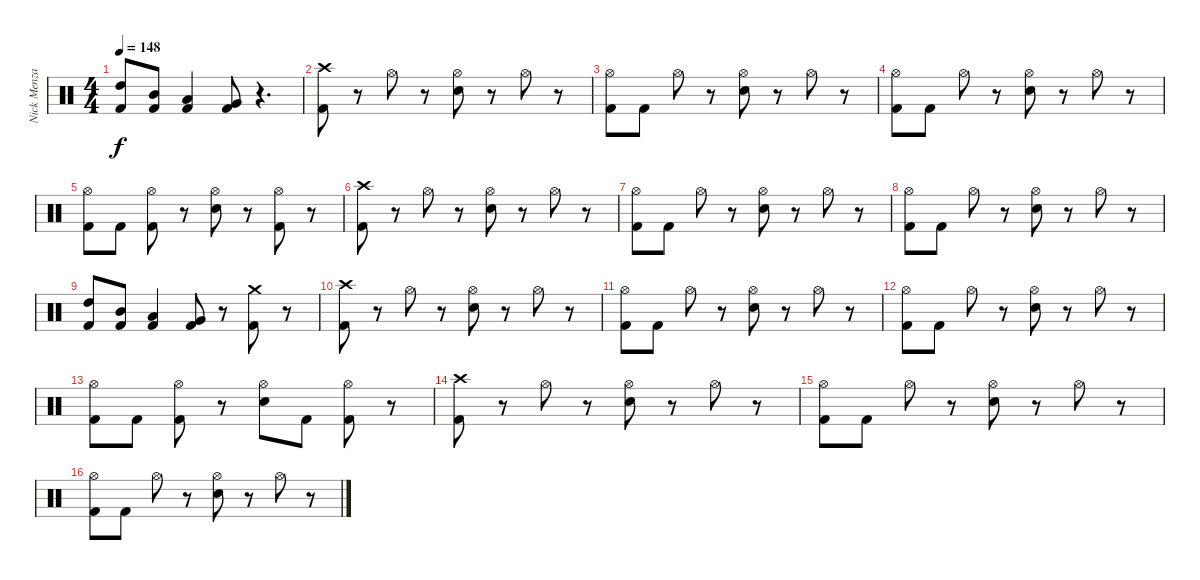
\track ("Nick Menza" "Nick Menza") {instrument percussion}
\staff {score}
\articulation defaults
\ts (4 4)
\tempo 148
\clef neutral
\ks c
("High Tom (hit)" "Kick (hit) 2").8{dy f} ("Mid Tom (hit)" "Kick (hit) 2").8 ("Low Tom (hit)" "Kick (hit) 2").4 ("Very Low Tom (hit)" "Kick (hit) 2").8 r.4{d} |
("Crash high (hit)" "Kick (hit) 2").8 r.8 "Hi-Hat (open)".8 r.8 ("Hi-Hat (open)" "Electric Snare (hit)").8 r.8 "Hi-Hat (open)".8 r.8 |
("Hi-Hat (open)" "Kick (hit) 2").8 "Kick (hit) 2".8 "Hi-Hat (open)".8 r.8 ("Hi-Hat (open)" "Electric Snare (hit)").8 r.8 "Hi-Hat (open)".8 r.8 |
("Hi-Hat (open)" "Kick (hit) 2").8 "Kick (hit) 2".8 "Hi-Hat (open)".8 r.8 ("Hi-Hat (open)" "Electric Snare (hit)").8 r.8 "Hi-Hat (open)".8 r.8 |
("Hi-Hat (open)" "Kick (hit) 2").8 "Kick (hit) 2".8 ("Hi-Hat (open)" "Kick (hit) 2").8 r.8 ("Hi-Hat (open)" "Electric Snare (hit)").8 r.8 ("Hi-Hat (open)" "Kick (hit) 2").8 r.8 |
("Crash high (hit)" "Kick (hit) 2").8 r.8 "Hi-Hat (open)".8 r.8 ("Hi-Hat (open)" "Electric Snare (hit)").8 r.8 "Hi-Hat (open)".8 r.8 |
("Hi-Hat (open)" "Kick (hit) 2").8 "Kick (hit) 2".8 "Hi-Hat (open)".8 r.8 ("Hi-Hat (open)" "Electric Snare (hit)").8 r.8 "Hi-Hat (open)".8 r.8 |
("Hi-Hat (open)" "Kick (hit) 2").8 "Kick (hit) 2".8 "Hi-Hat (open)".8 r.8 ("Hi-Hat (open)" "Electric Snare (hit)").8 r.8 "Hi-Hat (open)".8 r.8 |
("High Tom (hit)" "Kick (hit) 2").8 ("Mid Tom (hit)" "Kick (hit) 2").8 ("Low Tom (hit)" "Kick (hit) 2").4 ("Very Low Tom (hit)" "Kick (hit) 2").8 r.8 ("Crash medium (hit)" "Kick (hit) 2").8 r.8 |
("Crash high (hit)" "Kick (hit) 2").8 r.8 "Hi-Hat (open)".8 r.8 ("Hi-Hat (open)" "Electric Snare (hit)").8 r.8 "Hi-Hat (open)".8 r.8 |
("Hi-Hat (open)" "Kick (hit) 2").8 "Kick (hit) 2".8 "Hi-Hat (open)".8 r.8 ("Hi-Hat (open)" "Electric Snare (hit)").8 r.8 "Hi-Hat (open)".8 r.8 |
("Hi-Hat (open)" "Kick (hit) 2").8 "Kick (hit) 2".8 "Hi-Hat (open)".8 r.8 ("Hi-Hat (open)" "Electric Snare (hit)").8 r.8 "Hi-Hat (open)".8 r.8 |
("Hi-Hat (open)" "Kick (hit) 2").8 "Kick (hit) 2".8 ("Hi-Hat (open)" "Kick (hit) 2").8 r.8 ("Hi-Hat (open)" "Electric Snare (hit)").8 "Kick (hit) 2".8 ("Hi-Hat (open)" "Kick (hit) 2").8 r.8 |
("Crash high (hit)" "Kick (hit) 2").8 r.8 "Hi-Hat (open)".8 r.8 ("Hi-Hat (open)" "Electric Snare (hit)").8 r.8 "Hi-Hat (open)".8 r.8 |
("Hi-Hat (open)" "Kick (hit) 2").8 "Kick (hit) 2".8 "Hi-Hat (open)".8 r.8 ("Hi-Hat (open)" "Electric Snare (hit)").8 r.8 "Hi-Hat (open)".8 r.8 |
("Hi-Hat (open)" "Kick (hit) 2").8 "Kick (hit) 2".8 "Hi-Hat (open)".8 r.8 ("Hi-Hat (open)" "Electric Snare (hit)").8 r.8 "Hi-Hat (open)".8 r.8
